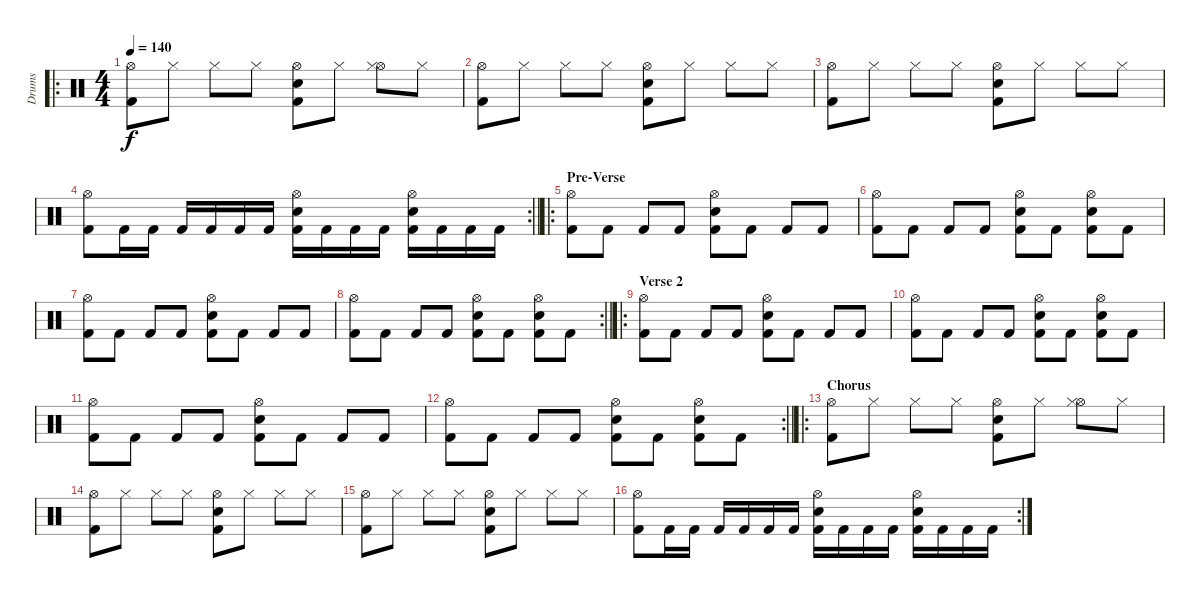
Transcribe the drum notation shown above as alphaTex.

\track ("Drums" "Drums") {instrument percussion}
\staff {score}
\articulation defaults
\ro
\ts (4 4)
\tempo 140
\clef neutral
\ks c
("Hi-Hat (open)" "Kick (hit) 2").8{dy f} "Hi-Hat (closed)".8 "Hi-Hat (closed)".8 "Hi-Hat (closed)".8 ("Hi-Hat (open)" "Snare (hit) 2" "Kick (hit) 2").8 "Hi-Hat (closed)".8 ("Hi-Hat (open)" "Hi-Hat (closed)").8 "Hi-Hat (closed)".8 |
("Hi-Hat (open)" "Kick (hit) 2").8 "Hi-Hat (closed)".8 "Hi-Hat (closed)".8 "Hi-Hat (closed)".8 ("Hi-Hat (open)" "Snare (hit) 2" "Kick (hit) 2").8 "Hi-Hat (closed)".8 "Hi-Hat (closed)".8 "Hi-Hat (closed)".8 |
("Hi-Hat (open)" "Kick (hit) 2").8 "Hi-Hat (closed)".8 "Hi-Hat (closed)".8 "Hi-Hat (closed)".8 ("Hi-Hat (open)" "Snare (hit) 2" "Kick (hit) 2").8 "Hi-Hat (closed)".8 "Hi-Hat (closed)".8 "Hi-Hat (closed)".8 |
\rc 2
\barLineRight lightlight
("Hi-Hat (open)" "Kick (hit) 2").8 "Kick (hit) 2".16 "Kick (hit) 2".16 "Kick (hit) 2".16 "Kick (hit) 2".16 "Kick (hit) 2".16 "Kick (hit) 2".16 ("Hi-Hat (open)" "Snare (hit) 2" "Kick (hit) 2").16 "Kick (hit) 2".16 "Kick (hit) 2".16 "Kick (hit) 2".16 ("Hi-Hat (open)" "Snare (hit) 2" "Kick (hit) 2").16 "Kick (hit) 2".16 "Kick (hit) 2".16 "Kick (hit) 2".16 |
\ro
\section ("" "Pre-Verse")
("Hi-Hat (open)" "Kick (hit) 2").8 "Kick (hit) 2".8 "Kick (hit) 2".8 "Kick (hit) 2".8 ("Hi-Hat (open)" "Snare (hit) 2" "Kick (hit) 2").8 "Kick (hit) 2".8 "Kick (hit) 2".8 "Kick (hit) 2".8 |
("Hi-Hat (open)" "Kick (hit) 2").8 "Kick (hit) 2".8 "Kick (hit) 2".8 "Kick (hit) 2".8 ("Hi-Hat (open)" "Snare (hit) 2" "Kick (hit) 2").8 "Kick (hit) 2".8 ("Hi-Hat (open)" "Snare (hit) 2" "Kick (hit) 2").8 "Kick (hit) 2".8 |
("Hi-Hat (open)" "Kick (hit) 2").8 "Kick (hit) 2".8 "Kick (hit) 2".8 "Kick (hit) 2".8 ("Hi-Hat (open)" "Snare (hit) 2" "Kick (hit) 2").8 "Kick (hit) 2".8 "Kick (hit) 2".8 "Kick (hit) 2".8 |
\rc 2
\barLineRight lightlight
("Hi-Hat (open)" "Kick (hit) 2").8 "Kick (hit) 2".8 "Kick (hit) 2".8 "Kick (hit) 2".8 ("Hi-Hat (open)" "Snare (hit) 2" "Kick (hit) 2").8 "Kick (hit) 2".8 ("Hi-Hat (open)" "Snare (hit) 2" "Kick (hit) 2").8 "Kick (hit) 2".8 |
\ro
\section ("" "Verse 2")
("Hi-Hat (open)" "Kick (hit) 2").8 "Kick (hit) 2".8 "Kick (hit) 2".8 "Kick (hit) 2".8 ("Hi-Hat (open)" "Snare (hit) 2" "Kick (hit) 2").8 "Kick (hit) 2".8 "Kick (hit) 2".8 "Kick (hit) 2".8 |
("Hi-Hat (open)" "Kick (hit) 2").8 "Kick (hit) 2".8 "Kick (hit) 2".8 "Kick (hit) 2".8 ("Hi-Hat (open)" "Snare (hit) 2" "Kick (hit) 2").8 "Kick (hit) 2".8 ("Hi-Hat (open)" "Snare (hit) 2" "Kick (hit) 2").8 "Kick (hit) 2".8 |
("Hi-Hat (open)" "Kick (hit) 2").8 "Kick (hit) 2".8 "Kick (hit) 2".8 "Kick (hit) 2".8 ("Hi-Hat (open)" "Snare (hit) 2" "Kick (hit) 2").8 "Kick (hit) 2".8 "Kick (hit) 2".8 "Kick (hit) 2".8 |
\rc 2
\barLineRight lightlight
("Hi-Hat (open)" "Kick (hit) 2").8 "Kick (hit) 2".8 "Kick (hit) 2".8 "Kick (hit) 2".8 ("Hi-Hat (open)" "Snare (hit) 2" "Kick (hit) 2").8 "Kick (hit) 2".8 ("Hi-Hat (open)" "Snare (hit) 2" "Kick (hit) 2").8 "Kick (hit) 2".8 |
\ro
\section ("" "Chorus")
("Hi-Hat (open)" "Kick (hit) 2").8 "Hi-Hat (closed)".8 "Hi-Hat (closed)".8 "Hi-Hat (closed)".8 ("Hi-Hat (open)" "Snare (hit) 2" "Kick (hit) 2").8 "Hi-Hat (closed)".8 ("Hi-Hat (open)" "Hi-Hat (closed)").8 "Hi-Hat (closed)".8 |
("Hi-Hat (open)" "Kick (hit) 2").8 "Hi-Hat (closed)".8 "Hi-Hat (closed)".8 "Hi-Hat (closed)".8 ("Hi-Hat (open)" "Snare (hit) 2" "Kick (hit) 2").8 "Hi-Hat (closed)".8 "Hi-Hat (closed)".8 "Hi-Hat (closed)".8 |
("Hi-Hat (open)" "Kick (hit) 2").8 "Hi-Hat (closed)".8 "Hi-Hat (closed)".8 "Hi-Hat (closed)".8 ("Hi-Hat (open)" "Snare (hit) 2" "Kick (hit) 2").8 "Hi-Hat (closed)".8 "Hi-Hat (closed)".8 "Hi-Hat (closed)".8 |
\rc 2
("Hi-Hat (open)" "Kick (hit) 2").8 "Kick (hit) 2".16 "Kick (hit) 2".16 "Kick (hit) 2".16 "Kick (hit) 2".16 "Kick (hit) 2".16 "Kick (hit) 2".16 ("Hi-Hat (open)" "Snare (hit) 2" "Kick (hit) 2").16 "Kick (hit) 2".16 "Kick (hit) 2".16 "Kick (hit) 2".16 ("Hi-Hat (open)" "Snare (hit) 2" "Kick (hit) 2").16 "Kick (hit) 2".16 "Kick (hit) 2".16 "Kick (hit) 2".16
